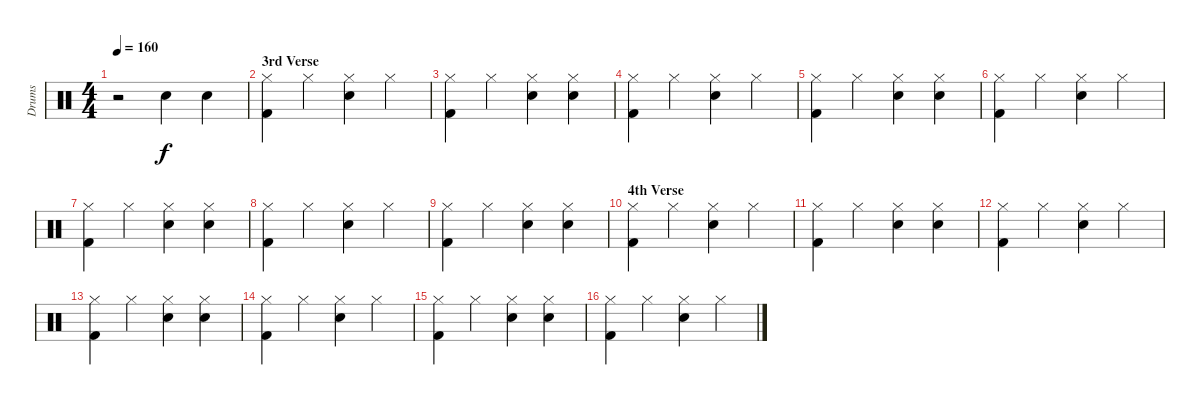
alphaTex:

\track ("Drums" "Drums") {instrument percussion}
\staff {score}
\articulation defaults
\ts (4 4)
\tempo 160
\clef neutral
\ks c
r.2{dy f} "Snare (hit) 2".4 "Snare (hit) 2".4 |
\section ("" "3rd Verse")
("Hi-Hat (closed)" "Kick (hit) 2").4 "Hi-Hat (closed)".4 ("Hi-Hat (closed)" "Snare (hit) 2").4 "Hi-Hat (closed)".4 |
("Hi-Hat (closed)" "Kick (hit) 2").4 "Hi-Hat (closed)".4 ("Hi-Hat (closed)" "Snare (hit) 2").4 ("Hi-Hat (closed)" "Snare (hit) 2").4 |
("Hi-Hat (closed)" "Kick (hit) 2").4 "Hi-Hat (closed)".4 ("Hi-Hat (closed)" "Snare (hit) 2").4 "Hi-Hat (closed)".4 |
("Hi-Hat (closed)" "Kick (hit) 2").4 "Hi-Hat (closed)".4 ("Hi-Hat (closed)" "Snare (hit) 2").4 ("Hi-Hat (closed)" "Snare (hit) 2").4 |
("Hi-Hat (closed)" "Kick (hit) 2").4 "Hi-Hat (closed)".4 ("Hi-Hat (closed)" "Snare (hit) 2").4 "Hi-Hat (closed)".4 |
("Hi-Hat (closed)" "Kick (hit) 2").4 "Hi-Hat (closed)".4 ("Hi-Hat (closed)" "Snare (hit) 2").4 ("Hi-Hat (closed)" "Snare (hit) 2").4 |
("Hi-Hat (closed)" "Kick (hit) 2").4 "Hi-Hat (closed)".4 ("Hi-Hat (closed)" "Snare (hit) 2").4 "Hi-Hat (closed)".4 |
("Hi-Hat (closed)" "Kick (hit) 2").4 "Hi-Hat (closed)".4 ("Hi-Hat (closed)" "Snare (hit) 2").4 ("Hi-Hat (closed)" "Snare (hit) 2").4 |
\section ("" "4th Verse")
("Hi-Hat (closed)" "Kick (hit) 2").4 "Hi-Hat (closed)".4 ("Hi-Hat (closed)" "Snare (hit) 2").4 "Hi-Hat (closed)".4 |
("Hi-Hat (closed)" "Kick (hit) 2").4 "Hi-Hat (closed)".4 ("Hi-Hat (closed)" "Snare (hit) 2").4 ("Hi-Hat (closed)" "Snare (hit) 2").4 |
("Hi-Hat (closed)" "Kick (hit) 2").4 "Hi-Hat (closed)".4 ("Hi-Hat (closed)" "Snare (hit) 2").4 "Hi-Hat (closed)".4 |
("Hi-Hat (closed)" "Kick (hit) 2").4 "Hi-Hat (closed)".4 ("Hi-Hat (closed)" "Snare (hit) 2").4 ("Hi-Hat (closed)" "Snare (hit) 2").4 |
("Hi-Hat (closed)" "Kick (hit) 2").4 "Hi-Hat (closed)".4 ("Hi-Hat (closed)" "Snare (hit) 2").4 "Hi-Hat (closed)".4 |
("Hi-Hat (closed)" "Kick (hit) 2").4 "Hi-Hat (closed)".4 ("Hi-Hat (closed)" "Snare (hit) 2").4 ("Hi-Hat (closed)" "Snare (hit) 2").4 |
("Hi-Hat (closed)" "Kick (hit) 2").4 "Hi-Hat (closed)".4 ("Hi-Hat (closed)" "Snare (hit) 2").4 "Hi-Hat (closed)".4
